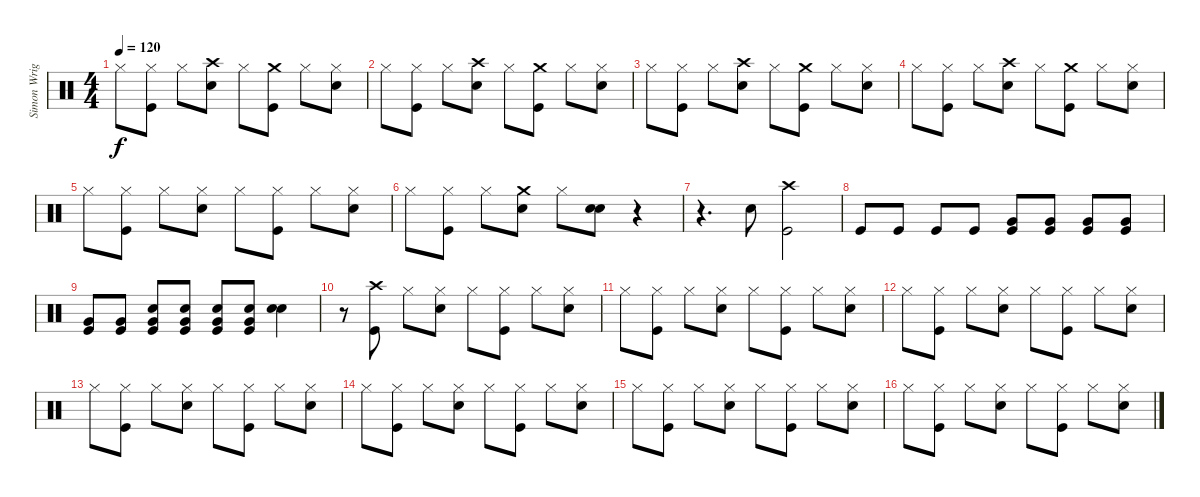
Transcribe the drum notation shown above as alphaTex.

\track ("Simon Wright" "Simon Wrig") {instrument percussion}
\staff {score}
\articulation defaults
\ts (4 4)
\tempo 120
\clef neutral
\ks c "Hi-Hat (closed)".8{dy f}
("Hi-Hat (closed)" "Kick (hit)").8 "Hi-Hat (closed)".8 ("Crash high (hit)" "Electric Snare (hit)").8 "Hi-Hat (closed)".8 ("Crash medium (hit)" "Kick (hit)").8 "Hi-Hat (closed)".8 ("Hi-Hat (closed)" "Electric Snare (hit)").8 |
"Hi-Hat (closed)".8 ("Hi-Hat (closed)" "Kick (hit)").8 "Hi-Hat (closed)".8 ("Crash high (hit)" "Electric Snare (hit)").8 "Hi-Hat (closed)".8 ("Crash medium (hit)" "Kick (hit)").8 "Hi-Hat (closed)".8 ("Hi-Hat (closed)" "Electric Snare (hit)").8 |
"Hi-Hat (closed)".8 ("Hi-Hat (closed)" "Kick (hit)").8 "Hi-Hat (closed)".8 ("Crash high (hit)" "Electric Snare (hit)").8 "Hi-Hat (closed)".8 ("Crash medium (hit)" "Kick (hit)").8 "Hi-Hat (closed)".8 ("Hi-Hat (closed)" "Electric Snare (hit)").8 |
"Hi-Hat (closed)".8 ("Hi-Hat (closed)" "Kick (hit)").8 "Hi-Hat (closed)".8 ("Crash high (hit)" "Electric Snare (hit)").8 "Hi-Hat (closed)".8 ("Crash medium (hit)" "Kick (hit)").8 "Hi-Hat (closed)".8 ("Hi-Hat (closed)" "Electric Snare (hit)").8 |
"Hi-Hat (closed)".8 ("Hi-Hat (closed)" "Kick (hit)").8 "Hi-Hat (closed)".8 ("Hi-Hat (closed)" "Electric Snare (hit)").8 "Hi-Hat (closed)".8 ("Hi-Hat (closed)" "Kick (hit)").8 "Hi-Hat (closed)".8 ("Hi-Hat (closed)" "Electric Snare (hit)").8 |
"Hi-Hat (closed)".8 ("Hi-Hat (closed)" "Kick (hit)").8 "Hi-Hat (closed)".8 ("Crash medium (hit)" "Electric Snare (hit)").8 "Hi-Hat (closed)".8 ("Electric Snare (hit)" "Electric Snare (hit)").8 r.4 |
r.4{d} "Electric Snare (hit)".8 ("Crash high (hit)" "Kick (hit)").2 |
"Kick (hit)".8 "Kick (hit)".8 "Kick (hit)".8 "Kick (hit)".8 ("Very Low Tom (hit)" "Kick (hit)").8 ("Very Low Tom (hit)" "Kick (hit)").8 ("Very Low Tom (hit)" "Kick (hit)").8 ("Very Low Tom (hit)" "Kick (hit)").8 |
("Very Low Tom (hit)" "Kick (hit)").8 ("Very Low Tom (hit)" "Kick (hit)").8 ("Electric Snare (hit)" "Very Low Tom (hit)" "Kick (hit)").8 ("Electric Snare (hit)" "Very Low Tom (hit)" "Kick (hit)").8 ("Electric Snare (hit)" "Very Low Tom (hit)" "Kick (hit)").8 ("Electric Snare (hit)" "Very Low Tom (hit)" "Kick (hit)").8 ("Electric Snare (hit)" "Electric Snare (hit)").4 |
r.8 ("Crash high (hit)" "Kick (hit)").8 "Hi-Hat (closed)".8 ("Hi-Hat (closed)" "Electric Snare (hit)").8 "Hi-Hat (closed)".8 ("Hi-Hat (closed)" "Kick (hit)").8 "Hi-Hat (closed)".8 ("Hi-Hat (closed)" "Electric Snare (hit)").8 |
"Hi-Hat (closed)".8 ("Hi-Hat (closed)" "Kick (hit)").8 "Hi-Hat (closed)".8 ("Hi-Hat (closed)" "Electric Snare (hit)").8 "Hi-Hat (closed)".8 ("Hi-Hat (closed)" "Kick (hit)").8 "Hi-Hat (closed)".8 ("Hi-Hat (closed)" "Electric Snare (hit)").8 |
"Hi-Hat (closed)".8 ("Hi-Hat (closed)" "Kick (hit)").8 "Hi-Hat (closed)".8 ("Hi-Hat (closed)" "Electric Snare (hit)").8 "Hi-Hat (closed)".8 ("Hi-Hat (closed)" "Kick (hit)").8 "Hi-Hat (closed)".8 ("Hi-Hat (closed)" "Electric Snare (hit)").8 |
"Hi-Hat (closed)".8 ("Hi-Hat (closed)" "Kick (hit)").8 "Hi-Hat (closed)".8 ("Hi-Hat (closed)" "Electric Snare (hit)").8 "Hi-Hat (closed)".8 ("Hi-Hat (closed)" "Kick (hit)").8 "Hi-Hat (closed)".8 ("Hi-Hat (closed)" "Electric Snare (hit)").8 |
"Hi-Hat (closed)".8 ("Hi-Hat (closed)" "Kick (hit)").8 "Hi-Hat (closed)".8 ("Hi-Hat (closed)" "Electric Snare (hit)").8 "Hi-Hat (closed)".8 ("Hi-Hat (closed)" "Kick (hit)").8 "Hi-Hat (closed)".8 ("Hi-Hat (closed)" "Electric Snare (hit)").8 |
"Hi-Hat (closed)".8 ("Hi-Hat (closed)" "Kick (hit)").8 "Hi-Hat (closed)".8 ("Hi-Hat (closed)" "Electric Snare (hit)").8 "Hi-Hat (closed)".8 ("Hi-Hat (closed)" "Kick (hit)").8 "Hi-Hat (closed)".8 ("Hi-Hat (closed)" "Electric Snare (hit)").8 |
"Hi-Hat (closed)".8 ("Hi-Hat (closed)" "Kick (hit)").8 "Hi-Hat (closed)".8 ("Hi-Hat (closed)" "Electric Snare (hit)").8 "Hi-Hat (closed)".8 ("Hi-Hat (closed)" "Kick (hit)").8 "Hi-Hat (closed)".8 ("Hi-Hat (closed)" "Electric Snare (hit)").8
